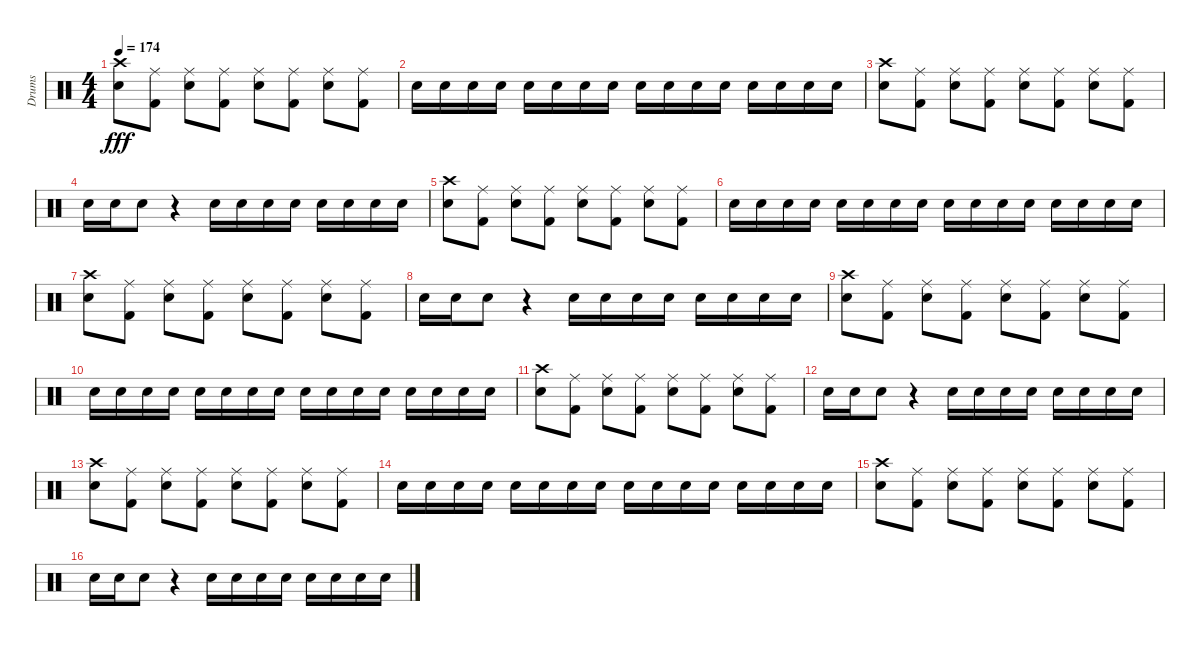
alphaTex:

\track ("Drums" "Drums") {instrument percussion}
\staff {score}
\articulation defaults
\ts (4 4)
\tempo 174
\clef neutral
\ks c
("Crash high (hit)" "Electric Snare (hit)").8{dy fff} ("Ride (middle)" "Kick (hit) 2").8 ("Ride (middle)" "Electric Snare (hit)").8 ("Ride (middle)" "Kick (hit) 2").8 ("Ride (middle)" "Electric Snare (hit)").8 ("Ride (middle)" "Kick (hit) 2").8 ("Ride (middle)" "Electric Snare (hit)").8 ("Ride (middle)" "Kick (hit) 2").8 |
"Electric Snare (hit)".16 "Electric Snare (hit)".16 "Electric Snare (hit)".16 "Electric Snare (hit)".16 "Electric Snare (hit)".16 "Electric Snare (hit)".16 "Electric Snare (hit)".16 "Electric Snare (hit)".16 "Electric Snare (hit)".16 "Electric Snare (hit)".16 "Electric Snare (hit)".16 "Electric Snare (hit)".16 "Electric Snare (hit)".16 "Electric Snare (hit)".16 "Electric Snare (hit)".16 "Electric Snare (hit)".16 |
("Crash high (hit)" "Electric Snare (hit)").8 ("Ride (middle)" "Kick (hit) 2").8 ("Ride (middle)" "Electric Snare (hit)").8 ("Ride (middle)" "Kick (hit) 2").8 ("Ride (middle)" "Electric Snare (hit)").8 ("Ride (middle)" "Kick (hit) 2").8 ("Ride (middle)" "Electric Snare (hit)").8 ("Ride (middle)" "Kick (hit) 2").8 |
"Electric Snare (hit)".16 "Electric Snare (hit)".16 "Electric Snare (hit)".8 r.4 "Electric Snare (hit)".16 "Electric Snare (hit)".16 "Electric Snare (hit)".16 "Electric Snare (hit)".16 "Electric Snare (hit)".16 "Electric Snare (hit)".16 "Electric Snare (hit)".16 "Electric Snare (hit)".16 |
("Crash high (hit)" "Electric Snare (hit)").8 ("Ride (middle)" "Kick (hit) 2").8 ("Ride (middle)" "Electric Snare (hit)").8 ("Ride (middle)" "Kick (hit) 2").8 ("Ride (middle)" "Electric Snare (hit)").8 ("Ride (middle)" "Kick (hit) 2").8 ("Ride (middle)" "Electric Snare (hit)").8 ("Ride (middle)" "Kick (hit) 2").8 |
"Electric Snare (hit)".16 "Electric Snare (hit)".16 "Electric Snare (hit)".16 "Electric Snare (hit)".16 "Electric Snare (hit)".16 "Electric Snare (hit)".16 "Electric Snare (hit)".16 "Electric Snare (hit)".16 "Electric Snare (hit)".16 "Electric Snare (hit)".16 "Electric Snare (hit)".16 "Electric Snare (hit)".16 "Electric Snare (hit)".16 "Electric Snare (hit)".16 "Electric Snare (hit)".16 "Electric Snare (hit)".16 |
("Crash high (hit)" "Electric Snare (hit)").8 ("Ride (middle)" "Kick (hit) 2").8 ("Ride (middle)" "Electric Snare (hit)").8 ("Ride (middle)" "Kick (hit) 2").8 ("Ride (middle)" "Electric Snare (hit)").8 ("Ride (middle)" "Kick (hit) 2").8 ("Ride (middle)" "Electric Snare (hit)").8 ("Ride (middle)" "Kick (hit) 2").8 |
"Electric Snare (hit)".16 "Electric Snare (hit)".16 "Electric Snare (hit)".8 r.4 "Electric Snare (hit)".16 "Electric Snare (hit)".16 "Electric Snare (hit)".16 "Electric Snare (hit)".16 "Electric Snare (hit)".16 "Electric Snare (hit)".16 "Electric Snare (hit)".16 "Electric Snare (hit)".16 |
("Crash high (hit)" "Electric Snare (hit)").8 ("Ride (middle)" "Kick (hit) 2").8 ("Ride (middle)" "Electric Snare (hit)").8 ("Ride (middle)" "Kick (hit) 2").8 ("Ride (middle)" "Electric Snare (hit)").8 ("Ride (middle)" "Kick (hit) 2").8 ("Ride (middle)" "Electric Snare (hit)").8 ("Ride (middle)" "Kick (hit) 2").8 |
"Electric Snare (hit)".16 "Electric Snare (hit)".16 "Electric Snare (hit)".16 "Electric Snare (hit)".16 "Electric Snare (hit)".16 "Electric Snare (hit)".16 "Electric Snare (hit)".16 "Electric Snare (hit)".16 "Electric Snare (hit)".16 "Electric Snare (hit)".16 "Electric Snare (hit)".16 "Electric Snare (hit)".16 "Electric Snare (hit)".16 "Electric Snare (hit)".16 "Electric Snare (hit)".16 "Electric Snare (hit)".16 |
("Crash high (hit)" "Electric Snare (hit)").8 ("Ride (middle)" "Kick (hit) 2").8 ("Ride (middle)" "Electric Snare (hit)").8 ("Ride (middle)" "Kick (hit) 2").8 ("Ride (middle)" "Electric Snare (hit)").8 ("Ride (middle)" "Kick (hit) 2").8 ("Ride (middle)" "Electric Snare (hit)").8 ("Ride (middle)" "Kick (hit) 2").8 |
"Electric Snare (hit)".16 "Electric Snare (hit)".16 "Electric Snare (hit)".8 r.4 "Electric Snare (hit)".16 "Electric Snare (hit)".16 "Electric Snare (hit)".16 "Electric Snare (hit)".16 "Electric Snare (hit)".16 "Electric Snare (hit)".16 "Electric Snare (hit)".16 "Electric Snare (hit)".16 |
("Crash high (hit)" "Electric Snare (hit)").8 ("Ride (middle)" "Kick (hit) 2").8 ("Ride (middle)" "Electric Snare (hit)").8 ("Ride (middle)" "Kick (hit) 2").8 ("Ride (middle)" "Electric Snare (hit)").8 ("Ride (middle)" "Kick (hit) 2").8 ("Ride (middle)" "Electric Snare (hit)").8 ("Ride (middle)" "Kick (hit) 2").8 |
"Electric Snare (hit)".16 "Electric Snare (hit)".16 "Electric Snare (hit)".16 "Electric Snare (hit)".16 "Electric Snare (hit)".16 "Electric Snare (hit)".16 "Electric Snare (hit)".16 "Electric Snare (hit)".16 "Electric Snare (hit)".16 "Electric Snare (hit)".16 "Electric Snare (hit)".16 "Electric Snare (hit)".16 "Electric Snare (hit)".16 "Electric Snare (hit)".16 "Electric Snare (hit)".16 "Electric Snare (hit)".16 |
("Crash high (hit)" "Electric Snare (hit)").8 ("Ride (middle)" "Kick (hit) 2").8 ("Ride (middle)" "Electric Snare (hit)").8 ("Ride (middle)" "Kick (hit) 2").8 ("Ride (middle)" "Electric Snare (hit)").8 ("Ride (middle)" "Kick (hit) 2").8 ("Ride (middle)" "Electric Snare (hit)").8 ("Ride (middle)" "Kick (hit) 2").8 |
"Electric Snare (hit)".16 "Electric Snare (hit)".16 "Electric Snare (hit)".8 r.4 "Electric Snare (hit)".16 "Electric Snare (hit)".16 "Electric Snare (hit)".16 "Electric Snare (hit)".16 "Electric Snare (hit)".16 "Electric Snare (hit)".16 "Electric Snare (hit)".16 "Electric Snare (hit)".16
